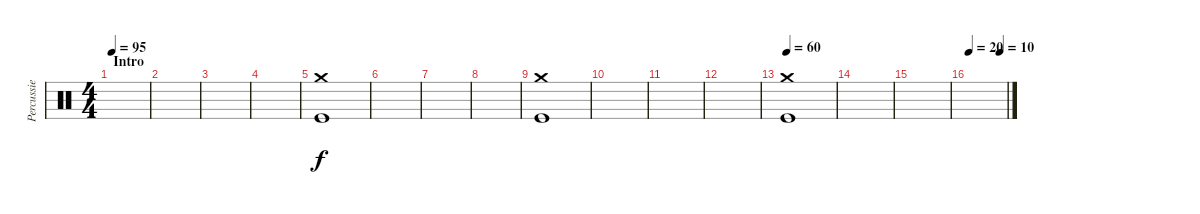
\track ("Percussie" "Percussie") {instrument percussion}
\staff {score}
\articulation defaults
\ts (4 4)
\section ("" "Intro")
\tempo 95
\clef neutral
\ks c
|
|
|
|
("Crash medium (hit)" "Kick (hit)").1 |
|
|
|
("Crash medium (hit)" "Kick (hit)").1 |
|
|
|
\tempo 60
("Crash medium (hit)" "Kick (hit)").1 |
|
|
\tempo 20
\tempo (10 0.8333333333333334)
